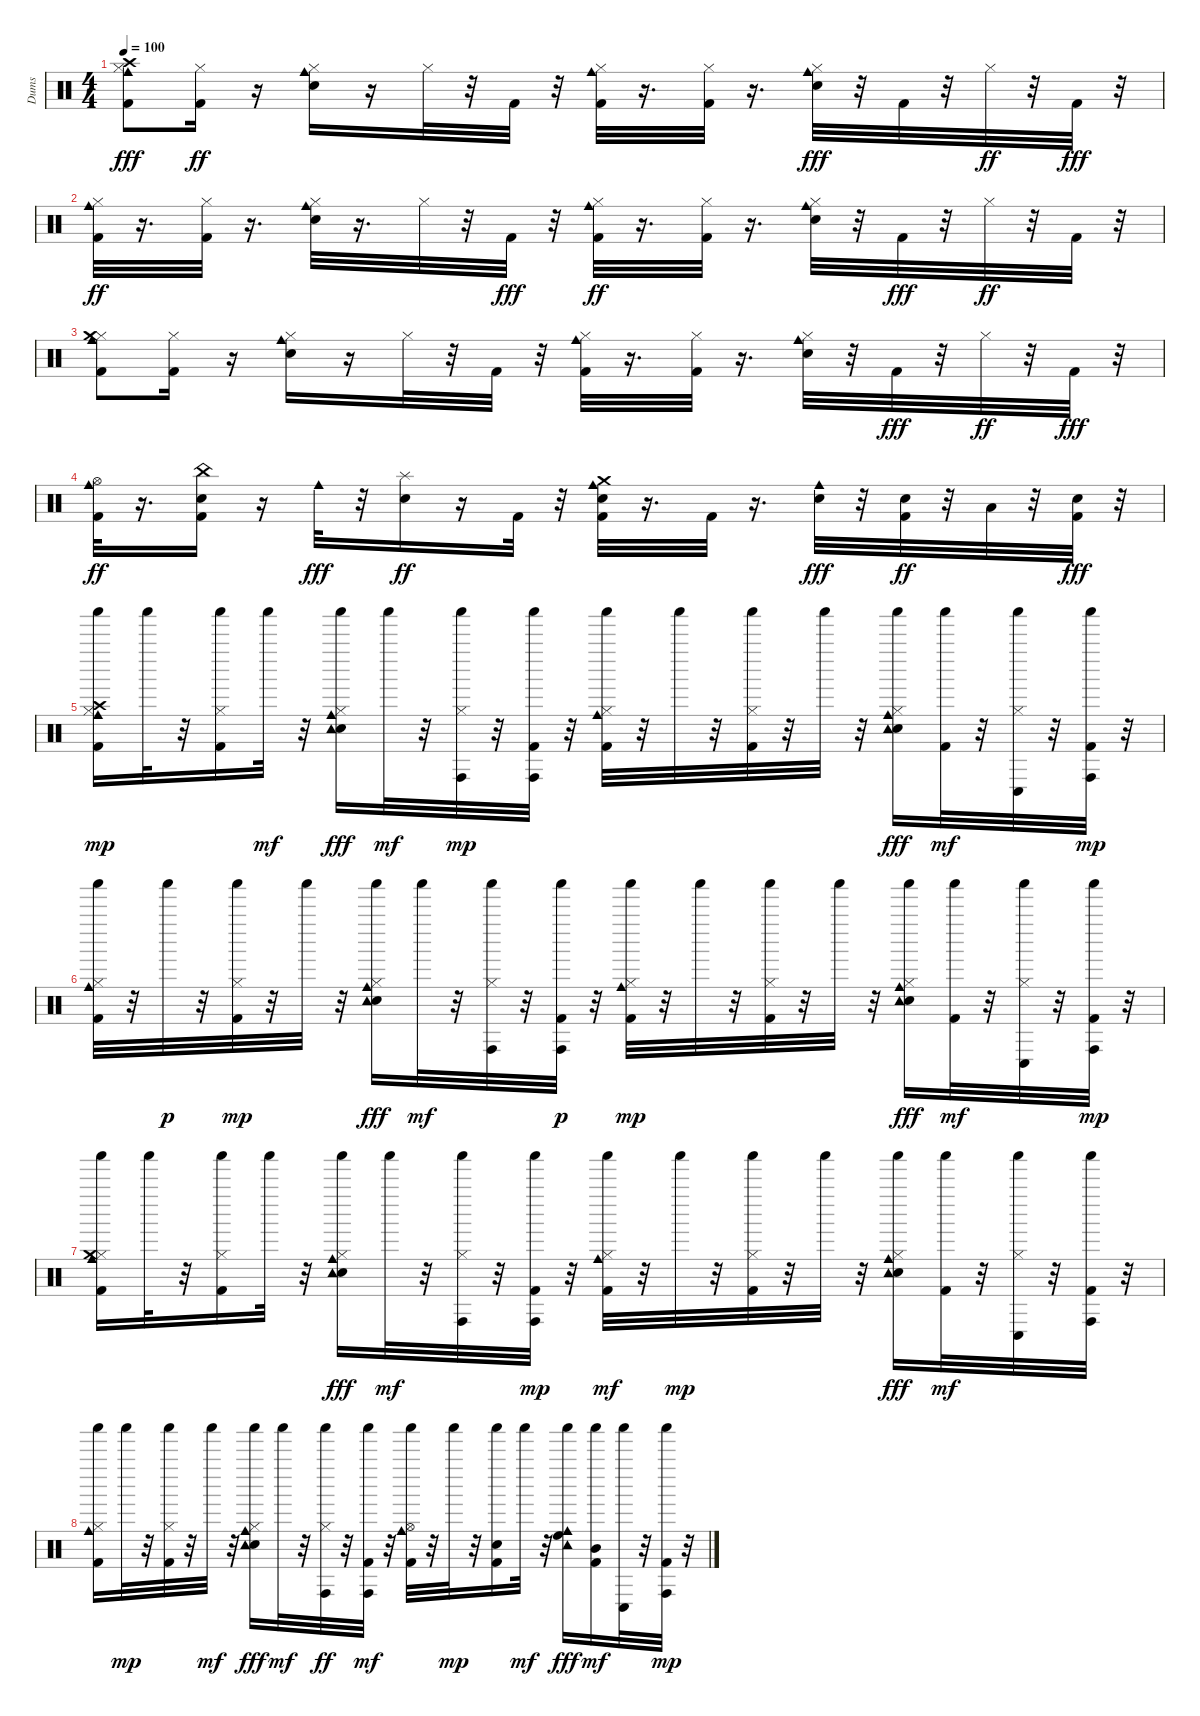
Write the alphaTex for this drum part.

\track ("Dums" "Dums") {instrument percussion}
\staff {score}
\articulation defaults
\ts (4 4)
\tempo 100
\clef neutral
\ks c
("Kick (hit) 2" "Hi-Hat (closed)" "Cowbell medium (hit)" "Crash high (hit)").8{dy fff} ("Kick (hit) 2" "Hi-Hat (closed)").16{dy ff} r.16 ("Electric Snare (hit)" "Hi-Hat (closed)" "Cowbell medium (hit)").16 r.16 "Hi-Hat (closed)".32 r.32 "Kick (hit) 2".32 r.32 ("Kick (hit) 2" "Hi-Hat (closed)" "Cowbell medium (hit)").32 r.16{d} ("Kick (hit) 2" "Hi-Hat (closed)").32 r.16{d} ("Electric Snare (hit)" "Hi-Hat (closed)" "Cowbell medium (hit)").32{dy fff} r.32 "Kick (hit) 2".32 r.32 "Hi-Hat (closed)".32{dy ff} r.32 "Kick (hit) 2".32{dy fff} r.32 |
("Kick (hit) 2" "Hi-Hat (closed)" "Cowbell medium (hit)").32{dy ff} r.16{d} ("Kick (hit) 2" "Hi-Hat (closed)").32 r.16{d} ("Electric Snare (hit)" "Hi-Hat (closed)" "Cowbell medium (hit)").32 r.16{d} "Hi-Hat (closed)".32 r.32 "Kick (hit) 2".32{dy fff} r.32 ("Kick (hit) 2" "Hi-Hat (closed)" "Cowbell medium (hit)").32{dy ff} r.16{d} ("Kick (hit) 2" "Hi-Hat (closed)").32 r.16{d} ("Electric Snare (hit)" "Hi-Hat (closed)" "Cowbell medium (hit)").32 r.32 "Kick (hit) 2".32{dy fff} r.32 "Hi-Hat (closed)".32{dy ff} r.32 "Kick (hit) 2".32 r.32 |
("Kick (hit) 2" "Hi-Hat (closed)" "Cowbell medium (hit)" "Crash medium (hit)").8 ("Kick (hit) 2" "Hi-Hat (closed)").16 r.16 ("Electric Snare (hit)" "Hi-Hat (closed)" "Cowbell medium (hit)").16 r.16 "Hi-Hat (closed)".32 r.32 "Kick (hit) 2".32 r.32 ("Kick (hit) 2" "Hi-Hat (closed)" "Cowbell medium (hit)").32 r.16{d} ("Kick (hit) 2" "Hi-Hat (closed)").32 r.16{d} ("Electric Snare (hit)" "Hi-Hat (closed)" "Cowbell medium (hit)").32 r.32 "Kick (hit) 2".32{dy fff} r.32 "Hi-Hat (closed)".32{dy ff} r.32 "Kick (hit) 2".32{dy fff} r.32 |
("Kick (hit) 2" "Hi-Hat (open)" "Cowbell medium (hit)").32{dy ff} r.16{d} ("Kick (hit) 2" "Electric Snare (hit)" "China (hit)").16 r.16 "Cowbell medium (hit)".32{dy fff} r.32 ("Electric Snare (hit)" "Splash (hit)").16{dy ff} r.16 "Kick (hit) 2".32 r.32 ("Kick (hit) 2" "Electric Snare (hit)" "Crash medium (hit)" "Cowbell medium (hit)").32 r.16{d} "Kick (hit) 2".32 r.16{d} ("Electric Snare (hit)" "Cowbell medium (hit)").32{dy fff} r.32 ("Kick (hit) 2" "Electric Snare (hit)").32{dy ff} r.32 "Low Tom (hit)".32 r.32 ("Kick (hit) 2" "Electric Snare (hit)").32{dy fff} r.32 |
("Kick (hit) 2" "Hi-Hat (closed)" "Cowbell medium (hit)" "Crash high (hit)" "Shaker (hit)").16{dy mp} "Shaker (hit)".32 r.32 ("Kick (hit) 2" "Hi-Hat (closed)" "Shaker (hit)").16 "Shaker (hit)".32{dy mf} r.32 ("Electric Snare (hit)" "Hi-Hat (closed)" "Cowbell medium (hit)" "Shaker (hit)" "Tambourine (hit)").16{dy fff} "Shaker (hit)".32{dy mf} r.32 ("Hi-Hat (closed)" "Conga high (hit)" "Shaker (hit)").32{dy mp} r.32 ("Kick (hit) 2" "Conga high (hit)" "Shaker (hit)").32 r.32 ("Kick (hit) 2" "Hi-Hat (closed)" "Cowbell medium (hit)" "Shaker (hit)").32 r.32 "Shaker (hit)".32 r.32 ("Kick (hit) 2" "Hi-Hat (closed)" "Shaker (hit)").32 r.32 "Shaker (hit)".32 r.32 ("Electric Snare (hit)" "Hi-Hat (closed)" "Cowbell medium (hit)" "Shaker (hit)" "Tambourine (hit)").16{dy fff} ("Kick (hit) 2" "Shaker (hit)").32{dy mf} r.32 ("Hi-Hat (closed)" "Conga low (hit)" "Shaker (hit)").32 r.32 ("Kick (hit) 2" "Conga high (hit)" "Shaker (hit)").32{dy mp} r.32 |
("Kick (hit) 2" "Hi-Hat (closed)" "Cowbell medium (hit)" "Shaker (hit)").32 r.32 "Shaker (hit)".32{dy p} r.32 ("Kick (hit) 2" "Hi-Hat (closed)" "Shaker (hit)").32{dy mp} r.32 "Shaker (hit)".32 r.32 ("Electric Snare (hit)" "Hi-Hat (closed)" "Cowbell medium (hit)" "Shaker (hit)" "Tambourine (hit)").16{dy fff} "Shaker (hit)".32{dy mf} r.32 ("Hi-Hat (closed)" "Conga high (hit)" "Shaker (hit)").32 r.32 ("Kick (hit) 2" "Conga high (hit)" "Shaker (hit)").32{dy p} r.32 ("Kick (hit) 2" "Hi-Hat (closed)" "Cowbell medium (hit)" "Shaker (hit)").32{dy mp} r.32 "Shaker (hit)".32 r.32 ("Kick (hit) 2" "Hi-Hat (closed)" "Shaker (hit)").32 r.32 "Shaker (hit)".32 r.32 ("Electric Snare (hit)" "Hi-Hat (closed)" "Cowbell medium (hit)" "Shaker (hit)" "Tambourine (hit)").16{dy fff} ("Kick (hit) 2" "Shaker (hit)").32{dy mf} r.32 ("Hi-Hat (closed)" "Conga low (hit)" "Shaker (hit)").32 r.32 ("Kick (hit) 2" "Conga high (hit)" "Shaker (hit)").32{dy mp} r.32 |
("Kick (hit) 2" "Hi-Hat (closed)" "Cowbell medium (hit)" "Crash medium (hit)" "Shaker (hit)").16 "Shaker (hit)".32 r.32 ("Kick (hit) 2" "Hi-Hat (closed)" "Shaker (hit)").16 "Shaker (hit)".32 r.32 ("Electric Snare (hit)" "Hi-Hat (closed)" "Cowbell medium (hit)" "Shaker (hit)" "Tambourine (hit)").16{dy fff} "Shaker (hit)".32{dy mf} r.32 ("Hi-Hat (closed)" "Conga high (hit)" "Shaker (hit)").32 r.32 ("Kick (hit) 2" "Conga high (hit)" "Shaker (hit)").32{dy mp} r.32 ("Kick (hit) 2" "Hi-Hat (closed)" "Cowbell medium (hit)" "Shaker (hit)").32{dy mf} r.32 "Shaker (hit)".32{dy mp} r.32 ("Kick (hit) 2" "Hi-Hat (closed)" "Shaker (hit)").32 r.32 "Shaker (hit)".32 r.32 ("Electric Snare (hit)" "Hi-Hat (closed)" "Cowbell medium (hit)" "Shaker (hit)" "Tambourine (hit)").16{dy fff} ("Kick (hit) 2" "Shaker (hit)").32{dy mf} r.32 ("Hi-Hat (closed)" "Conga low (hit)" "Shaker (hit)").32 r.32 ("Kick (hit) 2" "Conga high (hit)" "Shaker (hit)").32 r.32 |
("Kick (hit) 2" "Hi-Hat (closed)" "Cowbell medium (hit)" "Shaker (hit)").16 "Shaker (hit)".32{dy mp} r.32 ("Kick (hit) 2" "Hi-Hat (closed)" "Shaker (hit)").32 r.32 "Shaker (hit)".32{dy mf} r.32 ("Electric Snare (hit)" "Hi-Hat (closed)" "Cowbell medium (hit)" "Shaker (hit)" "Tambourine (hit)").16{dy fff} "Shaker (hit)".32{dy mf} r.32 ("Hi-Hat (closed)" "Conga high (hit)" "Shaker (hit)").32{dy ff} r.32 ("Kick (hit) 2" "Conga high (hit)" "Shaker (hit)").32{dy mf} r.32 ("Kick (hit) 2" "Hi-Hat (open)" "Cowbell medium (hit)" "Shaker (hit)").32 r.32 "Shaker (hit)".32{dy mp} r.32 ("Kick (hit) 2" "Electric Snare (hit)" "Shaker (hit)").16 "Shaker (hit)".32{dy mf} r.32 ("High Floor Tom (hit)" "Cowbell medium (hit)" "Shaker (hit)" "Tambourine (hit)").16{dy fff} ("Kick (hit) 2" "Mid Tom (hit)" "Shaker (hit)").16{dy mf} ("Conga low (hit)" "Shaker (hit)").32 r.32 ("Kick (hit) 2" "Conga high (hit)" "Shaker (hit)").32{dy mp} r.32
